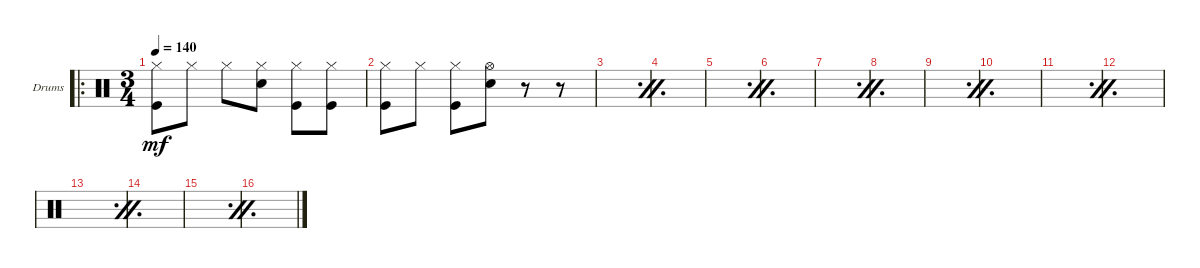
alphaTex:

\defaultSystemsLayout 4
\bracketExtendMode groupsimilarinstruments
\firstSystemTrackNameOrientation horizontal
\otherSystemsTrackNameOrientation horizontal
\track ("Drumkit" "Drums") {instrument percussion}
\staff {score}
\articulation defaults
\ro
\ts (3 4)
\tempo 140
\clef neutral
\scale
0.5
\ks c
("Kick (hit)" "Hi-Hat (closed)").8{dy mf} "Hi-Hat (closed)".8 "Hi-Hat (closed)".8 ("Snare (hit) 2" "Hi-Hat (closed)").8 ("Kick (hit)" "Hi-Hat (closed)").8 ("Kick (hit)" "Hi-Hat (closed)").8 |
\scale
0.25 ("Hi-Hat (closed)" "Kick (hit)").8 "Hi-Hat (closed)".8 ("Hi-Hat (closed)" "Kick (hit)").8 ("Hi-Hat (open)" "Snare (hit) 2").8 r.8 r.8 |
\simile firstofdouble
\scale
0.25 |
\simile secondofdouble
\scale
0.333333 |
\simile firstofdouble
\scale
0.333333 |
\simile secondofdouble
\scale
0.333333 |
\simile firstofdouble
\scale
0.333333 |
\simile secondofdouble
\scale
0.333333 |
\simile firstofdouble
\scale
0.333333 |
\simile secondofdouble
\scale
0.333333 |
\simile firstofdouble
\scale
0.333333 |
\simile secondofdouble
\scale
0.333333 |
\simile firstofdouble
\scale
0.333333 |
\simile secondofdouble
\scale
0.333333 |
\simile firstofdouble
\scale
0.333333 |
\simile secondofdouble
\scale
0.333333
